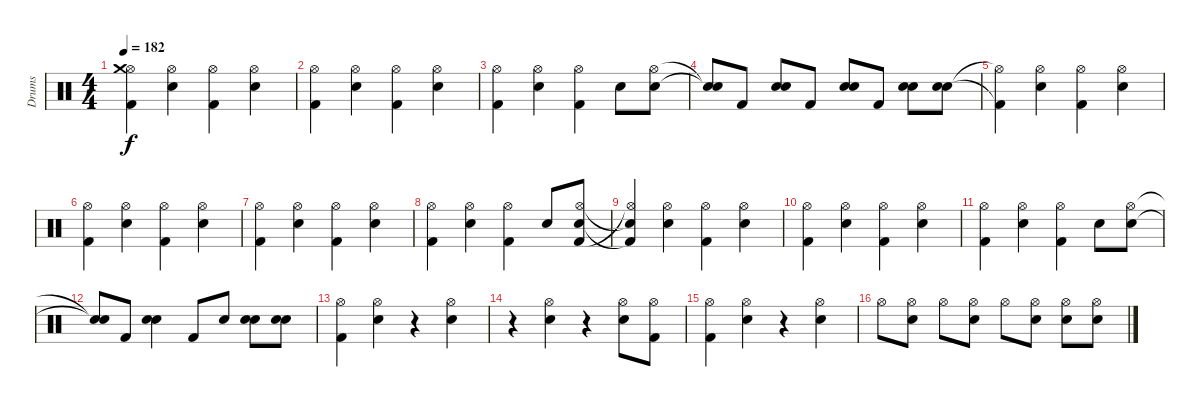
\track ("Drums" "Drums") {instrument percussion}
\staff {score}
\articulation defaults
\ts (4 4)
\tempo 182
\clef neutral
\ks c
("Kick (hit) 2" "Hi-Hat (open)" "Crash medium (hit)").4{dy f} ("Snare (hit) 2" "Hi-Hat (open)").4 ("Kick (hit) 2" "Hi-Hat (open)").4 ("Snare (hit) 2" "Hi-Hat (open)").4 |
("Kick (hit) 2" "Hi-Hat (open)").4 ("Snare (hit) 2" "Hi-Hat (open)").4 ("Kick (hit) 2" "Hi-Hat (open)").4 ("Snare (hit) 2" "Hi-Hat (open)").4 |
("Kick (hit) 2" "Hi-Hat (open)").4 ("Snare (hit) 2" "Hi-Hat (open)").4 ("Kick (hit) 2" "Hi-Hat (open)").4 "Snare (hit) 2".8 ("Snare (hit) 2" "Hi-Hat (open)").8 |
("Snare (hit)"{t} "Snare (hit)"{t}).8 "Kick (hit) 2".8 ("Snare (hit) 2" "Electric Snare (hit)").8 "Kick (hit) 2".8 ("Snare (hit) 2" "Electric Snare (hit)").8 "Kick (hit) 2".8 ("Snare (hit) 2" "Electric Snare (hit)").8 ("Snare (hit) 2" "Electric Snare (hit)").8 |
("Hi-Hat (open)"{t} "Kick (hit) 2"{t}).4 ("Snare (hit) 2" "Hi-Hat (open)").4 ("Kick (hit) 2" "Hi-Hat (open)").4 ("Snare (hit) 2" "Hi-Hat (open)").4 |
("Kick (hit) 2" "Hi-Hat (open)").4 ("Snare (hit) 2" "Hi-Hat (open)").4 ("Kick (hit) 2" "Hi-Hat (open)").4 ("Snare (hit) 2" "Hi-Hat (open)").4 |
("Kick (hit) 2" "Hi-Hat (open)").4 ("Snare (hit) 2" "Hi-Hat (open)").4 ("Kick (hit) 2" "Hi-Hat (open)").4 ("Snare (hit) 2" "Hi-Hat (open)").4 |
("Hi-Hat (open)" "Kick (hit) 2").4 ("Hi-Hat (open)" "Snare (hit) 2").4 ("Hi-Hat (open)" "Kick (hit) 2").4 "Snare (hit) 2".8 ("Kick (hit) 2" "Snare (hit) 2" "Hi-Hat (open)").8 |
("Hi-Hat (open)"{t} "Kick (hit) 2"{t} "Snare (hit)"{t}).4 ("Snare (hit) 2" "Hi-Hat (open)").4 ("Kick (hit) 2" "Hi-Hat (open)").4 ("Snare (hit) 2" "Hi-Hat (open)").4 |
("Kick (hit) 2" "Hi-Hat (open)").4 ("Snare (hit) 2" "Hi-Hat (open)").4 ("Kick (hit) 2" "Hi-Hat (open)").4 ("Snare (hit) 2" "Hi-Hat (open)").4 |
("Hi-Hat (open)" "Kick (hit) 2").4 ("Hi-Hat (open)" "Snare (hit) 2").4 ("Hi-Hat (open)" "Kick (hit) 2").4 "Snare (hit) 2".8 ("Snare (hit) 2" "Hi-Hat (open)").8 |
("Snare (hit)"{t} "Snare (hit)"{t}).8 "Kick (hit) 2".8 ("Snare (hit) 2" "Electric Snare (hit)").4 "Kick (hit) 2".8 "Snare (hit) 2".8 ("Snare (hit) 2" "Electric Snare (hit)").8 ("Snare (hit) 2" "Electric Snare (hit)").8 |
("Kick (hit) 2" "Hi-Hat (open)").4 ("Snare (hit) 2" "Hi-Hat (open)").4 r.4 ("Snare (hit) 2" "Hi-Hat (open)").4 |
r.4 ("Snare (hit) 2" "Hi-Hat (open)").4 r.4 ("Snare (hit) 2" "Hi-Hat (open)").8 ("Kick (hit) 2" "Hi-Hat (open)").8 |
("Kick (hit) 2" "Hi-Hat (open)").4 ("Snare (hit) 2" "Hi-Hat (open)").4 r.4 ("Snare (hit) 2" "Hi-Hat (open)").4 |
"Hi-Hat (open)".8 ("Snare (hit) 2" "Hi-Hat (open)").8 "Hi-Hat (open)".8 ("Snare (hit) 2" "Hi-Hat (open)").8 "Hi-Hat (open)".8 ("Snare (hit) 2" "Hi-Hat (open)").8 ("Snare (hit) 2" "Hi-Hat (open)").8 ("Snare (hit) 2" "Hi-Hat (open)").8
